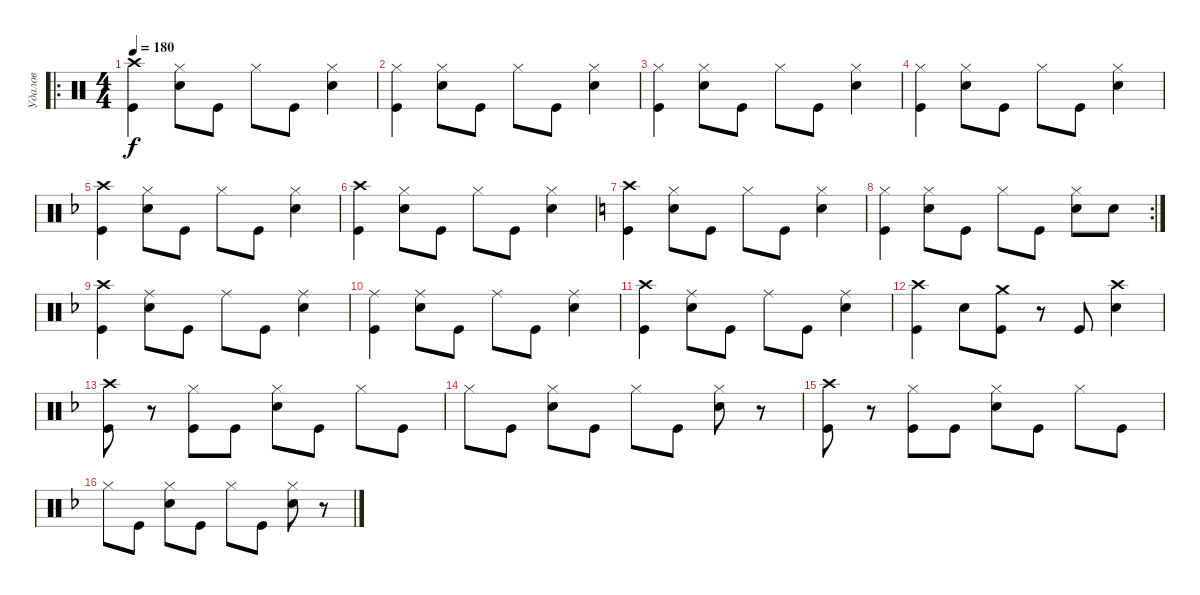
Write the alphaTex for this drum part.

\track ("Удалов" "Удалов") {instrument percussion}
\staff {score}
\articulation defaults
\ro
\ts (4 4)
\tempo 180
\clef neutral
\ks c
("Crash high (hit)" "Kick (hit)").4{dy f} ("Hi-Hat (closed)" "Electric Snare (hit)").8 "Kick (hit)".8 "Hi-Hat (closed)".8 "Kick (hit)".8 ("Hi-Hat (closed)" "Electric Snare (hit)").4 |
("Hi-Hat (closed)" "Kick (hit)").4 ("Hi-Hat (closed)" "Electric Snare (hit)").8 "Kick (hit)".8 "Hi-Hat (closed)".8 "Kick (hit)".8 ("Hi-Hat (closed)" "Electric Snare (hit)").4 |
("Hi-Hat (closed)" "Kick (hit)").4 ("Hi-Hat (closed)" "Electric Snare (hit)").8 "Kick (hit)".8 "Hi-Hat (closed)".8 "Kick (hit)".8 ("Hi-Hat (closed)" "Electric Snare (hit)").4 |
("Hi-Hat (closed)" "Kick (hit)").4 ("Hi-Hat (closed)" "Electric Snare (hit)").8 "Kick (hit)".8 "Hi-Hat (closed)".8 "Kick (hit)".8 ("Hi-Hat (closed)" "Electric Snare (hit)").4 |
\ks f
("Crash high (hit)" "Kick (hit)").4 ("Hi-Hat (closed)" "Electric Snare (hit)").8 "Kick (hit)".8 "Hi-Hat (closed)".8 "Kick (hit)".8 ("Hi-Hat (closed)" "Electric Snare (hit)").4 |
("Crash high (hit)" "Kick (hit)").4 ("Hi-Hat (closed)" "Electric Snare (hit)").8 "Kick (hit)".8 "Hi-Hat (closed)".8 "Kick (hit)".8 ("Hi-Hat (closed)" "Electric Snare (hit)").4 |
\ks c
("Crash high (hit)" "Kick (hit)").4 ("Hi-Hat (closed)" "Electric Snare (hit)").8 "Kick (hit)".8 "Hi-Hat (closed)".8 "Kick (hit)".8 ("Hi-Hat (closed)" "Electric Snare (hit)").4 |
\rc 2
("Hi-Hat (closed)" "Kick (hit)").4 ("Hi-Hat (closed)" "Electric Snare (hit)").8 "Kick (hit)".8 "Hi-Hat (closed)".8 "Kick (hit)".8 ("Hi-Hat (closed)" "Electric Snare (hit)").8 "Electric Snare (hit)".8 |
\ks f
("Crash high (hit)" "Kick (hit)").4 ("Ride (middle)" "Electric Snare (hit)").8 "Kick (hit)".8 "Ride (middle)".8 "Kick (hit)".8 ("Ride (middle)" "Electric Snare (hit)").4 |
("Ride (middle)" "Kick (hit)").4 ("Ride (middle)" "Electric Snare (hit)").8 "Kick (hit)".8 "Ride (middle)".8 "Kick (hit)".8 ("Ride (middle)" "Electric Snare (hit)").4 |
("Crash high (hit)" "Kick (hit)").4 ("Ride (middle)" "Electric Snare (hit)").8 "Kick (hit)".8 "Ride (middle)".8 "Kick (hit)".8 ("Ride (middle)" "Electric Snare (hit)").4 |
("Crash high (hit)" "Kick (hit)").4 "Electric Snare (hit)".8 ("Crash medium (hit)" "Kick (hit)").8 r.8 "Kick (hit)".8 ("Crash high (hit)" "Electric Snare (hit)").4 |
("Crash high (hit)" "Kick (hit)").8 r.8 ("Hi-Hat (closed)" "Kick (hit)").8 "Kick (hit)".8 ("Hi-Hat (closed)" "Electric Snare (hit)").8 "Kick (hit)".8 "Hi-Hat (closed)".8 "Kick (hit)".8 |
"Hi-Hat (closed)".8 "Kick (hit)".8 ("Hi-Hat (closed)" "Electric Snare (hit)").8 "Kick (hit)".8 "Hi-Hat (closed)".8 "Kick (hit)".8 ("Hi-Hat (closed)" "Electric Snare (hit)").8 r.8 |
("Crash high (hit)" "Kick (hit)").8 r.8 ("Hi-Hat (closed)" "Kick (hit)").8 "Kick (hit)".8 ("Hi-Hat (closed)" "Electric Snare (hit)").8 "Kick (hit)".8 "Hi-Hat (closed)".8 "Kick (hit)".8 |
"Hi-Hat (closed)".8 "Kick (hit)".8 ("Hi-Hat (closed)" "Electric Snare (hit)").8 "Kick (hit)".8 "Hi-Hat (closed)".8 "Kick (hit)".8 ("Hi-Hat (closed)" "Electric Snare (hit)").8 r.8
